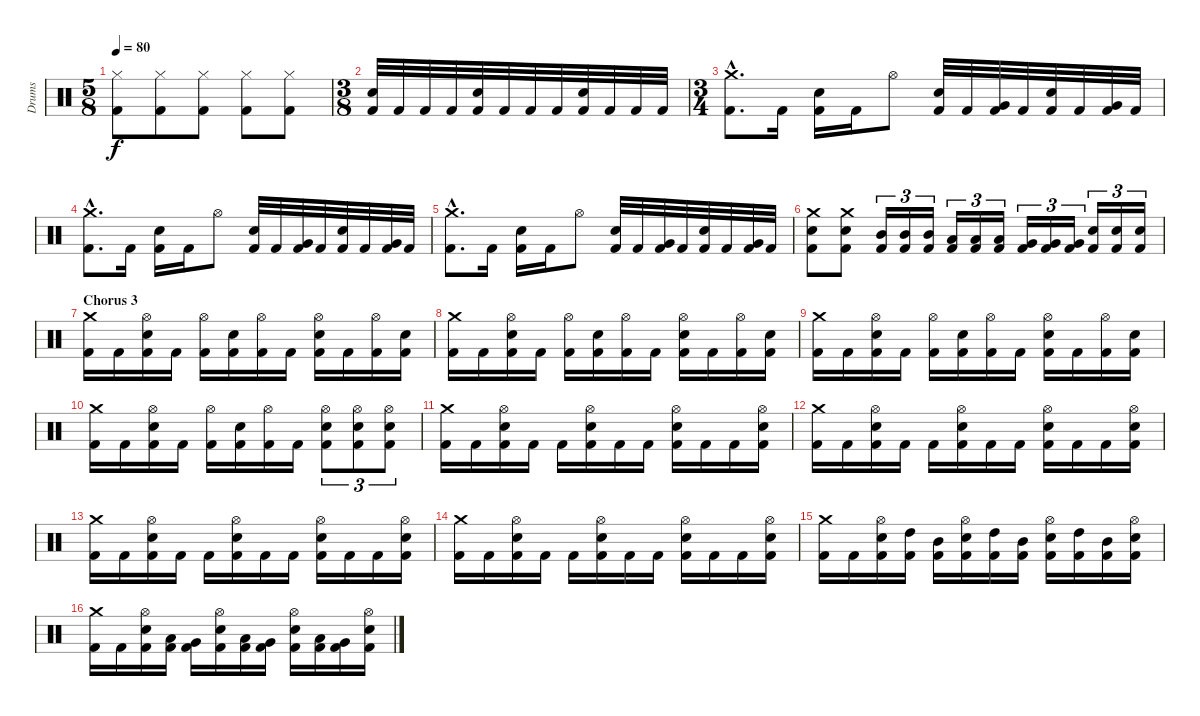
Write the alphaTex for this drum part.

\track ("Drums" "Drums") {instrument percussion}
\staff {score}
\articulation defaults
\ts (5 8)
\tempo 80
\clef neutral
\ks c
("Hi-Hat (closed)" "Kick (hit) 2").8{dy f} ("Hi-Hat (closed)" "Kick (hit) 2").8 ("Hi-Hat (closed)" "Kick (hit) 2").8 ("Hi-Hat (closed)" "Kick (hit) 2").8 ("Hi-Hat (closed)" "Kick (hit) 2").8 |
\ts (3 8)
("Snare (hit) 2" "Kick (hit) 2").32 "Kick (hit) 2".32 "Kick (hit) 2".32 "Kick (hit) 2".32 ("Snare (hit) 2" "Kick (hit) 2").32 "Kick (hit) 2".32 "Kick (hit) 2".32 "Kick (hit) 2".32 ("Snare (hit) 2" "Kick (hit) 2").32 "Kick (hit) 2".32 "Kick (hit) 2".32 "Kick (hit) 2".32 |
\ts (3 4)
("Crash medium (hit)"{hac} "Kick (hit) 2"{hac}).8{d} "Kick (hit) 2".16 ("Snare (hit) 2" "Kick (hit) 2").16 "Kick (hit) 2".16 "Hi-Hat (open)".8 ("Snare (hit) 2" "Kick (hit) 2").32 "Kick (hit) 2".32 ("Very Low Tom (hit)" "Kick (hit) 2").32 "Kick (hit) 2".32 ("Snare (hit) 2" "Kick (hit) 2").32 "Kick (hit) 2".32 ("Very Low Tom (hit)" "Kick (hit) 2").32 "Kick (hit) 2".32 |
("Crash medium (hit)"{hac} "Kick (hit) 2"{hac}).8{d} "Kick (hit) 2".16 ("Snare (hit) 2" "Kick (hit) 2").16 "Kick (hit) 2".16 "Hi-Hat (open)".8 ("Snare (hit) 2" "Kick (hit) 2").32 "Kick (hit) 2".32 ("Very Low Tom (hit)" "Kick (hit) 2").32 "Kick (hit) 2".32 ("Snare (hit) 2" "Kick (hit) 2").32 "Kick (hit) 2".32 ("Very Low Tom (hit)" "Kick (hit) 2").32 "Kick (hit) 2".32 |
("Crash medium (hit)"{hac} "Kick (hit) 2"{hac}).8{d} "Kick (hit) 2".16 ("Snare (hit) 2" "Kick (hit) 2").16 "Kick (hit) 2".16 "Hi-Hat (open)".8 ("Snare (hit) 2" "Kick (hit) 2").32 "Kick (hit) 2".32 ("Very Low Tom (hit)" "Kick (hit) 2").32 "Kick (hit) 2".32 ("Snare (hit) 2" "Kick (hit) 2").32 "Kick (hit) 2".32 ("Very Low Tom (hit)" "Kick (hit) 2").32 "Kick (hit) 2".32 |
("Crash medium (hit)" "Snare (hit) 2" "Kick (hit) 2").8 ("Crash medium (hit)" "Snare (hit) 2" "Kick (hit) 2").8 ("Mid Tom (hit)" "Kick (hit) 2").16{tu (3 2)} ("Mid Tom (hit)" "Kick (hit) 2").16{tu (3 2)} ("Mid Tom (hit)" "Kick (hit) 2").16{tu (3 2)} ("Low Tom (hit)" "Kick (hit) 2").16{tu (3 2)} ("Low Tom (hit)" "Kick (hit) 2").16{tu (3 2)} ("Low Tom (hit)" "Kick (hit) 2").16{tu (3 2)} ("Very Low Tom (hit)" "Kick (hit) 2").16{tu (3 2)} ("Very Low Tom (hit)" "Kick (hit) 2").16{tu (3 2)} ("Very Low Tom (hit)" "Kick (hit) 2").16{tu (3 2)} ("Snare (hit) 2" "Kick (hit) 2").16{tu (3 2)} ("Snare (hit) 2" "Kick (hit) 2").16{tu (3 2)} ("Snare (hit) 2" "Kick (hit) 2").16{tu (3 2)} |
\section ("" "Chorus 3")
("Crash medium (hit)" "Kick (hit) 2").16 "Kick (hit) 2".16 ("Hi-Hat (open)" "Snare (hit) 2" "Kick (hit) 2").16 "Kick (hit) 2".16 ("Hi-Hat (open)" "Kick (hit) 2").16 ("Snare (hit) 2" "Kick (hit) 2").16 ("Hi-Hat (open)" "Kick (hit) 2").16 "Kick (hit) 2".16 ("Hi-Hat (open)" "Snare (hit) 2" "Kick (hit) 2").16 "Kick (hit) 2".16 ("Hi-Hat (open)" "Kick (hit) 2").16 ("Snare (hit) 2" "Kick (hit) 2").16 |
("Crash medium (hit)" "Kick (hit) 2").16 "Kick (hit) 2".16 ("Hi-Hat (open)" "Snare (hit) 2" "Kick (hit) 2").16 "Kick (hit) 2".16 ("Hi-Hat (open)" "Kick (hit) 2").16 ("Snare (hit) 2" "Kick (hit) 2").16 ("Hi-Hat (open)" "Kick (hit) 2").16 "Kick (hit) 2".16 ("Hi-Hat (open)" "Snare (hit) 2" "Kick (hit) 2").16 "Kick (hit) 2".16 ("Hi-Hat (open)" "Kick (hit) 2").16 ("Snare (hit) 2" "Kick (hit) 2").16 |
("Crash medium (hit)" "Kick (hit) 2").16 "Kick (hit) 2".16 ("Hi-Hat (open)" "Snare (hit) 2" "Kick (hit) 2").16 "Kick (hit) 2".16 ("Hi-Hat (open)" "Kick (hit) 2").16 ("Snare (hit) 2" "Kick (hit) 2").16 ("Hi-Hat (open)" "Kick (hit) 2").16 "Kick (hit) 2".16 ("Hi-Hat (open)" "Snare (hit) 2" "Kick (hit) 2").16 "Kick (hit) 2".16 ("Hi-Hat (open)" "Kick (hit) 2").16 ("Snare (hit) 2" "Kick (hit) 2").16 |
("Crash medium (hit)" "Kick (hit) 2").16 "Kick (hit) 2".16 ("Hi-Hat (open)" "Snare (hit) 2" "Kick (hit) 2").16 "Kick (hit) 2".16 ("Hi-Hat (open)" "Kick (hit) 2").16 ("Snare (hit) 2" "Kick (hit) 2").16 ("Hi-Hat (open)" "Kick (hit) 2").16 "Kick (hit) 2".16 ("Hi-Hat (open)" "Snare (hit) 2" "Kick (hit) 2").8{tu (3 2)} ("Hi-Hat (open)" "Snare (hit) 2" "Kick (hit) 2").8{tu (3 2)} ("Hi-Hat (open)" "Snare (hit) 2" "Kick (hit) 2").8{tu (3 2)} |
("Crash medium (hit)" "Kick (hit) 2").16 "Kick (hit) 2".16 ("Hi-Hat (open)" "Snare (hit) 2" "Kick (hit) 2").16 "Kick (hit) 2".16 "Kick (hit) 2".16 ("Hi-Hat (open)" "Snare (hit) 2" "Kick (hit) 2").16 "Kick (hit) 2".16 "Kick (hit) 2".16 ("Hi-Hat (open)" "Snare (hit) 2" "Kick (hit) 2").16 "Kick (hit) 2".16 "Kick (hit) 2".16 ("Hi-Hat (open)" "Snare (hit) 2" "Kick (hit) 2").16 |
("Crash medium (hit)" "Kick (hit) 2").16 "Kick (hit) 2".16 ("Hi-Hat (open)" "Snare (hit) 2" "Kick (hit) 2").16 "Kick (hit) 2".16 "Kick (hit) 2".16 ("Hi-Hat (open)" "Snare (hit) 2" "Kick (hit) 2").16 "Kick (hit) 2".16 "Kick (hit) 2".16 ("Hi-Hat (open)" "Snare (hit) 2" "Kick (hit) 2").16 "Kick (hit) 2".16 "Kick (hit) 2".16 ("Hi-Hat (open)" "Snare (hit) 2" "Kick (hit) 2").16 |
("Crash medium (hit)" "Kick (hit) 2").16 "Kick (hit) 2".16 ("Hi-Hat (open)" "Snare (hit) 2" "Kick (hit) 2").16 "Kick (hit) 2".16 "Kick (hit) 2".16 ("Hi-Hat (open)" "Snare (hit) 2" "Kick (hit) 2").16 "Kick (hit) 2".16 "Kick (hit) 2".16 ("Hi-Hat (open)" "Snare (hit) 2" "Kick (hit) 2").16 "Kick (hit) 2".16 "Kick (hit) 2".16 ("Hi-Hat (open)" "Snare (hit) 2" "Kick (hit) 2").16 |
("Crash medium (hit)" "Kick (hit) 2").16 "Kick (hit) 2".16 ("Hi-Hat (open)" "Snare (hit) 2" "Kick (hit) 2").16 "Kick (hit) 2".16 "Kick (hit) 2".16 ("Hi-Hat (open)" "Snare (hit) 2" "Kick (hit) 2").16 "Kick (hit) 2".16 "Kick (hit) 2".16 ("Hi-Hat (open)" "Snare (hit) 2" "Kick (hit) 2").16 "Kick (hit) 2".16 "Kick (hit) 2".16 ("Hi-Hat (open)" "Snare (hit) 2" "Kick (hit) 2").16 |
("Crash medium (hit)" "Kick (hit) 2").16 "Kick (hit) 2".16 ("Hi-Hat (open)" "Snare (hit) 2" "Kick (hit) 2").16 ("High Tom (hit)" "Kick (hit) 2").16 ("Mid Tom (hit)" "Kick (hit) 2").16 ("Hi-Hat (open)" "Snare (hit) 2" "Kick (hit) 2").16 ("High Tom (hit)" "Kick (hit) 2").16 ("Mid Tom (hit)" "Kick (hit) 2").16 ("Hi-Hat (open)" "Snare (hit) 2" "Kick (hit) 2").16 ("High Tom (hit)" "Kick (hit) 2").16 ("Mid Tom (hit)" "Kick (hit) 2").16 ("Hi-Hat (open)" "Snare (hit) 2" "Kick (hit) 2").16 |
("Crash medium (hit)" "Kick (hit) 2").16 "Kick (hit) 2".16 ("Hi-Hat (open)" "Snare (hit) 2" "Kick (hit) 2").16 ("Low Tom (hit)" "Kick (hit) 2").16 ("Very Low Tom (hit)" "Kick (hit) 2").16 ("Hi-Hat (open)" "Snare (hit) 2" "Kick (hit) 2").16 ("Low Tom (hit)" "Kick (hit) 2").16 ("Very Low Tom (hit)" "Kick (hit) 2").16 ("Hi-Hat (open)" "Snare (hit) 2" "Kick (hit) 2").16 ("Low Tom (hit)" "Kick (hit) 2").16 ("Very Low Tom (hit)" "Kick (hit) 2").16 ("Hi-Hat (open)" "Snare (hit) 2" "Kick (hit) 2").16
